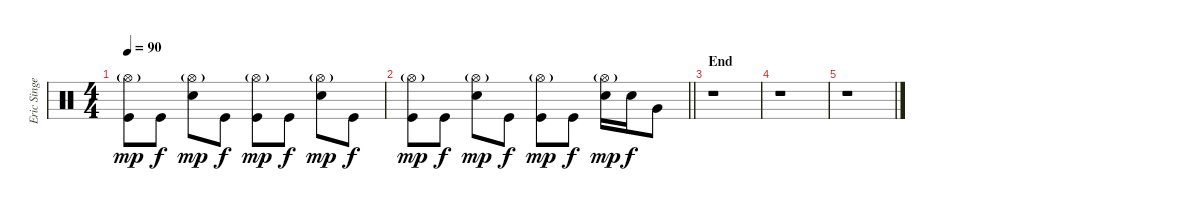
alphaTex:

\track ("Eric Singer (Drums)" "Eric Singe") {instrument percussion}
\staff {score}
\articulation defaults
\ts (4 4)
\tempo 90
\clef neutral
\ks c
("Hi-Hat (open)"{g} "Kick (hit)").8{dy mp} "Kick (hit)".8{dy f} ("Hi-Hat (open)"{g} "Snare (hit) 2").8{dy mp} "Kick (hit)".8{dy f} ("Hi-Hat (open)"{g} "Kick (hit)").8{dy mp} "Kick (hit)".8{dy f} ("Hi-Hat (open)"{g} "Snare (hit) 2").8{dy mp} "Kick (hit)".8{dy f} |
\barLineRight lightlight
("Hi-Hat (open)"{g} "Kick (hit)").8{dy mp} "Kick (hit)".8{dy f} ("Hi-Hat (open)"{g} "Snare (hit) 2").8{dy mp} "Kick (hit)".8{dy f} ("Hi-Hat (open)"{g} "Kick (hit)").8{dy mp} "Kick (hit)".8{dy f} ("Hi-Hat (open)"{g} "Snare (hit) 2").16{dy mp} "Snare (hit) 2".16{dy f} "Very Low Tom (hit)".8 |
\section ("" "End")
r.1 |
r.1 |
r.1
